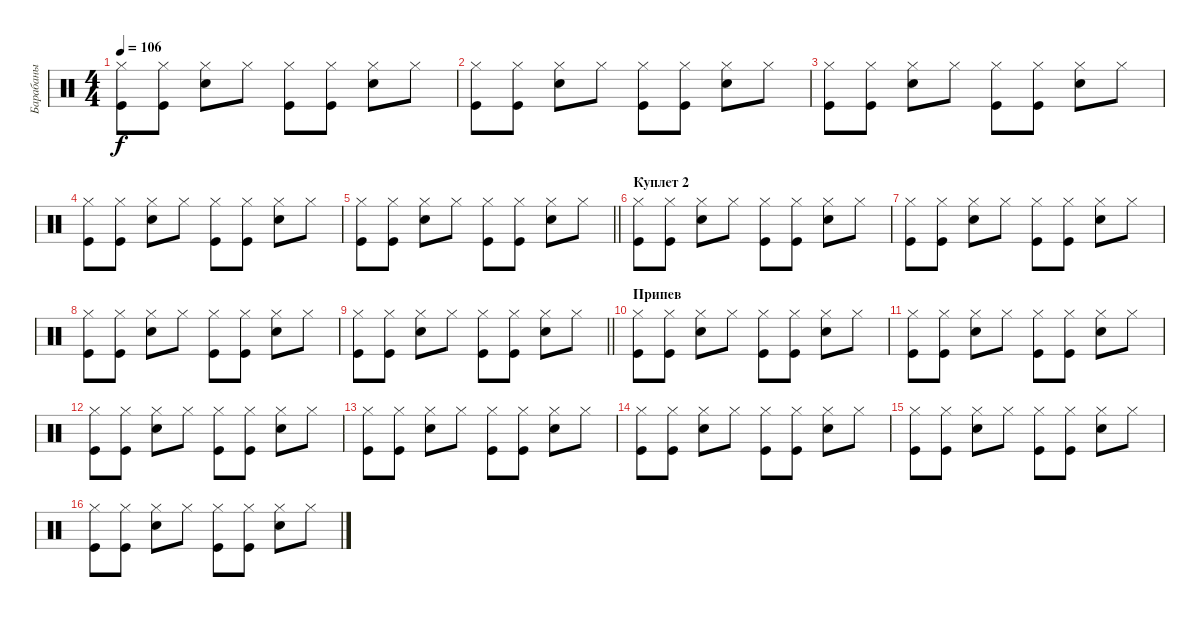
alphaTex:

\track ("Барабаны" "Барабаны") {instrument percussion}
\staff {score}
\articulation defaults
\ts (4 4)
\tempo 106
\clef neutral
\ks c
("Kick (hit)" "Hi-Hat (closed)").8{dy f} ("Kick (hit)" "Hi-Hat (closed)").8 ("Snare (hit) 2" "Hi-Hat (closed)").8 "Hi-Hat (closed)".8 ("Kick (hit)" "Hi-Hat (closed)").8 ("Kick (hit)" "Hi-Hat (closed)").8 ("Snare (hit) 2" "Hi-Hat (closed)").8 "Hi-Hat (closed)".8 |
("Kick (hit)" "Hi-Hat (closed)").8 ("Kick (hit)" "Hi-Hat (closed)").8 ("Snare (hit) 2" "Hi-Hat (closed)").8 "Hi-Hat (closed)".8 ("Kick (hit)" "Hi-Hat (closed)").8 ("Kick (hit)" "Hi-Hat (closed)").8 ("Snare (hit) 2" "Hi-Hat (closed)").8 "Hi-Hat (closed)".8 |
("Kick (hit)" "Hi-Hat (closed)").8 ("Kick (hit)" "Hi-Hat (closed)").8 ("Snare (hit) 2" "Hi-Hat (closed)").8 "Hi-Hat (closed)".8 ("Kick (hit)" "Hi-Hat (closed)").8 ("Kick (hit)" "Hi-Hat (closed)").8 ("Snare (hit) 2" "Hi-Hat (closed)").8 "Hi-Hat (closed)".8 |
("Kick (hit)" "Hi-Hat (closed)").8 ("Kick (hit)" "Hi-Hat (closed)").8 ("Snare (hit) 2" "Hi-Hat (closed)").8 "Hi-Hat (closed)".8 ("Kick (hit)" "Hi-Hat (closed)").8 ("Kick (hit)" "Hi-Hat (closed)").8 ("Snare (hit) 2" "Hi-Hat (closed)").8 "Hi-Hat (closed)".8 |
\barLineRight lightlight
("Kick (hit)" "Hi-Hat (closed)").8 ("Kick (hit)" "Hi-Hat (closed)").8 ("Snare (hit) 2" "Hi-Hat (closed)").8 "Hi-Hat (closed)".8 ("Kick (hit)" "Hi-Hat (closed)").8 ("Kick (hit)" "Hi-Hat (closed)").8 ("Snare (hit) 2" "Hi-Hat (closed)").8 "Hi-Hat (closed)".8 |
\section ("" "Куплет 2")
("Kick (hit)" "Hi-Hat (closed)").8 ("Kick (hit)" "Hi-Hat (closed)").8 ("Snare (hit) 2" "Hi-Hat (closed)").8 "Hi-Hat (closed)".8 ("Kick (hit)" "Hi-Hat (closed)").8 ("Kick (hit)" "Hi-Hat (closed)").8 ("Snare (hit) 2" "Hi-Hat (closed)").8 "Hi-Hat (closed)".8 |
("Kick (hit)" "Hi-Hat (closed)").8 ("Kick (hit)" "Hi-Hat (closed)").8 ("Snare (hit) 2" "Hi-Hat (closed)").8 "Hi-Hat (closed)".8 ("Kick (hit)" "Hi-Hat (closed)").8 ("Kick (hit)" "Hi-Hat (closed)").8 ("Snare (hit) 2" "Hi-Hat (closed)").8 "Hi-Hat (closed)".8 |
("Kick (hit)" "Hi-Hat (closed)").8 ("Kick (hit)" "Hi-Hat (closed)").8 ("Snare (hit) 2" "Hi-Hat (closed)").8 "Hi-Hat (closed)".8 ("Kick (hit)" "Hi-Hat (closed)").8 ("Kick (hit)" "Hi-Hat (closed)").8 ("Snare (hit) 2" "Hi-Hat (closed)").8 "Hi-Hat (closed)".8 |
\barLineRight lightlight
("Kick (hit)" "Hi-Hat (closed)").8 ("Kick (hit)" "Hi-Hat (closed)").8 ("Snare (hit) 2" "Hi-Hat (closed)").8 "Hi-Hat (closed)".8 ("Kick (hit)" "Hi-Hat (closed)").8 ("Kick (hit)" "Hi-Hat (closed)").8 ("Snare (hit) 2" "Hi-Hat (closed)").8 "Hi-Hat (closed)".8 |
\section ("" "Припев")
("Kick (hit)" "Hi-Hat (closed)").8 ("Kick (hit)" "Hi-Hat (closed)").8 ("Snare (hit) 2" "Hi-Hat (closed)").8 "Hi-Hat (closed)".8 ("Kick (hit)" "Hi-Hat (closed)").8 ("Kick (hit)" "Hi-Hat (closed)").8 ("Snare (hit) 2" "Hi-Hat (closed)").8 "Hi-Hat (closed)".8 |
("Kick (hit)" "Hi-Hat (closed)").8 ("Kick (hit)" "Hi-Hat (closed)").8 ("Snare (hit) 2" "Hi-Hat (closed)").8 "Hi-Hat (closed)".8 ("Kick (hit)" "Hi-Hat (closed)").8 ("Kick (hit)" "Hi-Hat (closed)").8 ("Snare (hit) 2" "Hi-Hat (closed)").8 "Hi-Hat (closed)".8 |
("Kick (hit)" "Hi-Hat (closed)").8 ("Kick (hit)" "Hi-Hat (closed)").8 ("Snare (hit) 2" "Hi-Hat (closed)").8 "Hi-Hat (closed)".8 ("Kick (hit)" "Hi-Hat (closed)").8 ("Kick (hit)" "Hi-Hat (closed)").8 ("Snare (hit) 2" "Hi-Hat (closed)").8 "Hi-Hat (closed)".8 |
("Kick (hit)" "Hi-Hat (closed)").8 ("Kick (hit)" "Hi-Hat (closed)").8 ("Snare (hit) 2" "Hi-Hat (closed)").8 "Hi-Hat (closed)".8 ("Kick (hit)" "Hi-Hat (closed)").8 ("Kick (hit)" "Hi-Hat (closed)").8 ("Snare (hit) 2" "Hi-Hat (closed)").8 "Hi-Hat (closed)".8 |
("Kick (hit)" "Hi-Hat (closed)").8 ("Kick (hit)" "Hi-Hat (closed)").8 ("Snare (hit) 2" "Hi-Hat (closed)").8 "Hi-Hat (closed)".8 ("Kick (hit)" "Hi-Hat (closed)").8 ("Kick (hit)" "Hi-Hat (closed)").8 ("Snare (hit) 2" "Hi-Hat (closed)").8 "Hi-Hat (closed)".8 |
("Kick (hit)" "Hi-Hat (closed)").8 ("Kick (hit)" "Hi-Hat (closed)").8 ("Snare (hit) 2" "Hi-Hat (closed)").8 "Hi-Hat (closed)".8 ("Kick (hit)" "Hi-Hat (closed)").8 ("Kick (hit)" "Hi-Hat (closed)").8 ("Snare (hit) 2" "Hi-Hat (closed)").8 "Hi-Hat (closed)".8 |
("Kick (hit)" "Hi-Hat (closed)").8 ("Kick (hit)" "Hi-Hat (closed)").8 ("Snare (hit) 2" "Hi-Hat (closed)").8 "Hi-Hat (closed)".8 ("Kick (hit)" "Hi-Hat (closed)").8 ("Kick (hit)" "Hi-Hat (closed)").8 ("Snare (hit) 2" "Hi-Hat (closed)").8 "Hi-Hat (closed)".8
